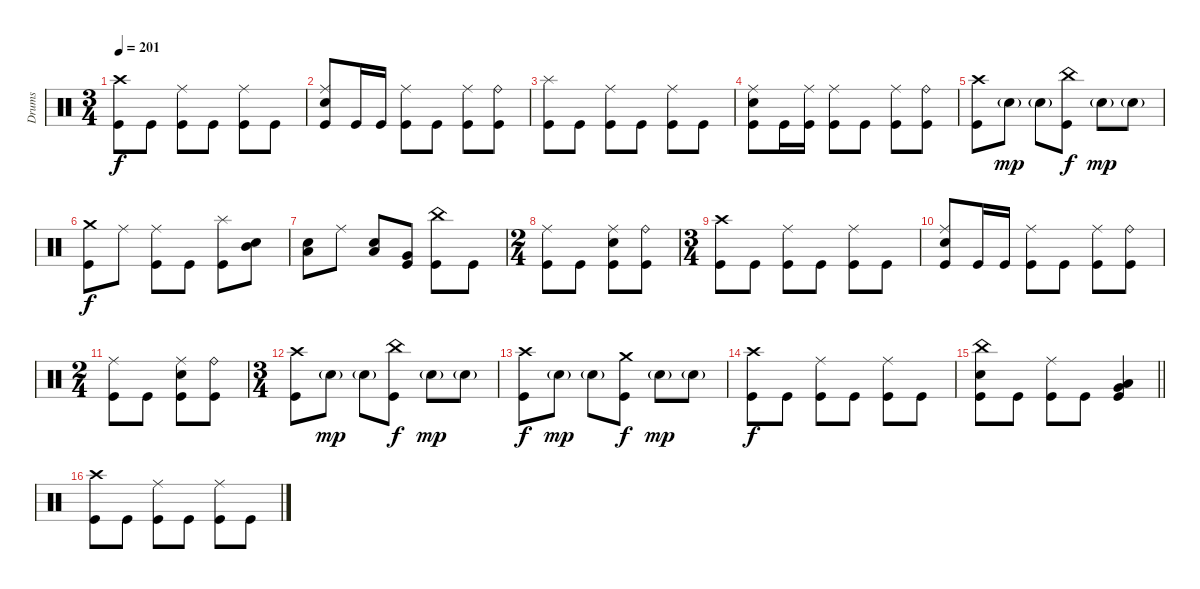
\track ("Drums" "Drums") {instrument percussion}
\staff
\articulation defaults
\ts (3 4)
\tempo 201
\clef neutral
\ks c
("Crash high (hit)" "Kick (hit)").8{dy f} "Kick (hit)".8 ("Ride (middle)" "Kick (hit)").8 "Kick (hit)".8 ("Ride (middle)" "Kick (hit)").8 "Kick (hit)".8 |
("Ride (middle)" "Electric Snare (hit)" "Kick (hit)").8 "Kick (hit)".16 "Kick (hit)".16 ("Ride (middle)" "Kick (hit)").8 "Kick (hit)".8 ("Ride (middle)" "Kick (hit)").8 ("Ride (bell)" "Kick (hit)").8 |
("Splash (hit)" "Kick (hit)").8 "Kick (hit)".8 ("Ride (middle)" "Kick (hit)").8 "Kick (hit)".8 ("Ride (middle)" "Kick (hit)").8 "Kick (hit)".8 |
("Ride (middle)" "Electric Snare (hit)" "Kick (hit)").8 "Kick (hit)".16 ("Ride (middle)" "Kick (hit)").16 ("Ride (middle)" "Kick (hit)").8 "Kick (hit)".8 ("Ride (middle)" "Kick (hit)").8 ("Ride (bell)" "Kick (hit)").8 |
("Crash high (hit)" "Kick (hit)").8 "Electric Snare (hit)"{g}.8{dy mp} "Electric Snare (hit)"{g}.8 ("China (hit)" "Kick (hit)").8{dy f} "Electric Snare (hit)"{g}.8{dy mp} "Electric Snare (hit)"{g}.8 |
("Crash medium (hit)" "Kick (hit)").8{dy f} "Ride (middle)".8 ("Ride (middle)" "Kick (hit)").8 "Kick (hit)".8 ("Splash (hit)" "Kick (hit)").8 ("Mid Tom (hit)" "Electric Snare (hit)").8 |
("Low Tom (hit)" "Electric Snare (hit)").8 "Ride (middle)".8 ("Low Tom (hit)" "Electric Snare (hit)").8 ("Very Low Tom (hit)" "Kick (hit)").8 ("China (hit)" "Kick (hit)").8 "Kick (hit)".8 |
\ts (2 4)
("Ride (middle)" "Kick (hit)").8 "Kick (hit)".8 ("Ride (middle)" "Electric Snare (hit)" "Kick (hit)").8 ("Ride (bell)" "Kick (hit)").8 |
\ts (3 4)
("Crash high (hit)" "Kick (hit)").8 "Kick (hit)".8 ("Ride (middle)" "Kick (hit)").8 "Kick (hit)".8 ("Ride (middle)" "Kick (hit)").8 "Kick (hit)".8 |
("Ride (middle)" "Electric Snare (hit)" "Kick (hit)").8 "Kick (hit)".16 "Kick (hit)".16 ("Ride (middle)" "Kick (hit)").8 "Kick (hit)".8 ("Ride (middle)" "Kick (hit)").8 ("Ride (bell)" "Kick (hit)").8 |
\ts (2 4)
("Ride (middle)" "Kick (hit)").8 "Kick (hit)".8 ("Ride (middle)" "Electric Snare (hit)" "Kick (hit)").8 ("Ride (bell)" "Kick (hit)").8 |
\ts (3 4)
("Crash high (hit)" "Kick (hit)").8 "Electric Snare (hit)"{g}.8{dy mp} "Electric Snare (hit)"{g}.8 ("China (hit)" "Kick (hit)").8{dy f} "Electric Snare (hit)"{g}.8{dy mp} "Electric Snare (hit)"{g}.8 |
("Crash high (hit)" "Kick (hit)").8{dy f} "Electric Snare (hit)"{g}.8{dy mp} "Electric Snare (hit)"{g}.8 ("Crash medium (hit)" "Kick (hit)").8{dy f} "Electric Snare (hit)"{g}.8{dy mp} "Electric Snare (hit)"{g}.8 |
("Crash high (hit)" "Kick (hit)").8{dy f} "Kick (hit)".8 ("Ride (middle)" "Kick (hit)").8 "Kick (hit)".8 ("Ride (middle)" "Kick (hit)").8 "Kick (hit)".8 |
\barLineRight lightlight
("China (hit)" "Electric Snare (hit)" "Kick (hit)").8 "Kick (hit)".8 ("Ride (middle)" "Kick (hit)").8 "Kick (hit)".8 ("Very Low Tom (hit)" "Low Floor Tom (hit)" "Kick (hit)").4 |
("Crash high (hit)" "Kick (hit)").8 "Kick (hit)".8 ("Ride (middle)" "Kick (hit)").8 "Kick (hit)".8 ("Ride (middle)" "Kick (hit)").8 "Kick (hit)".8
